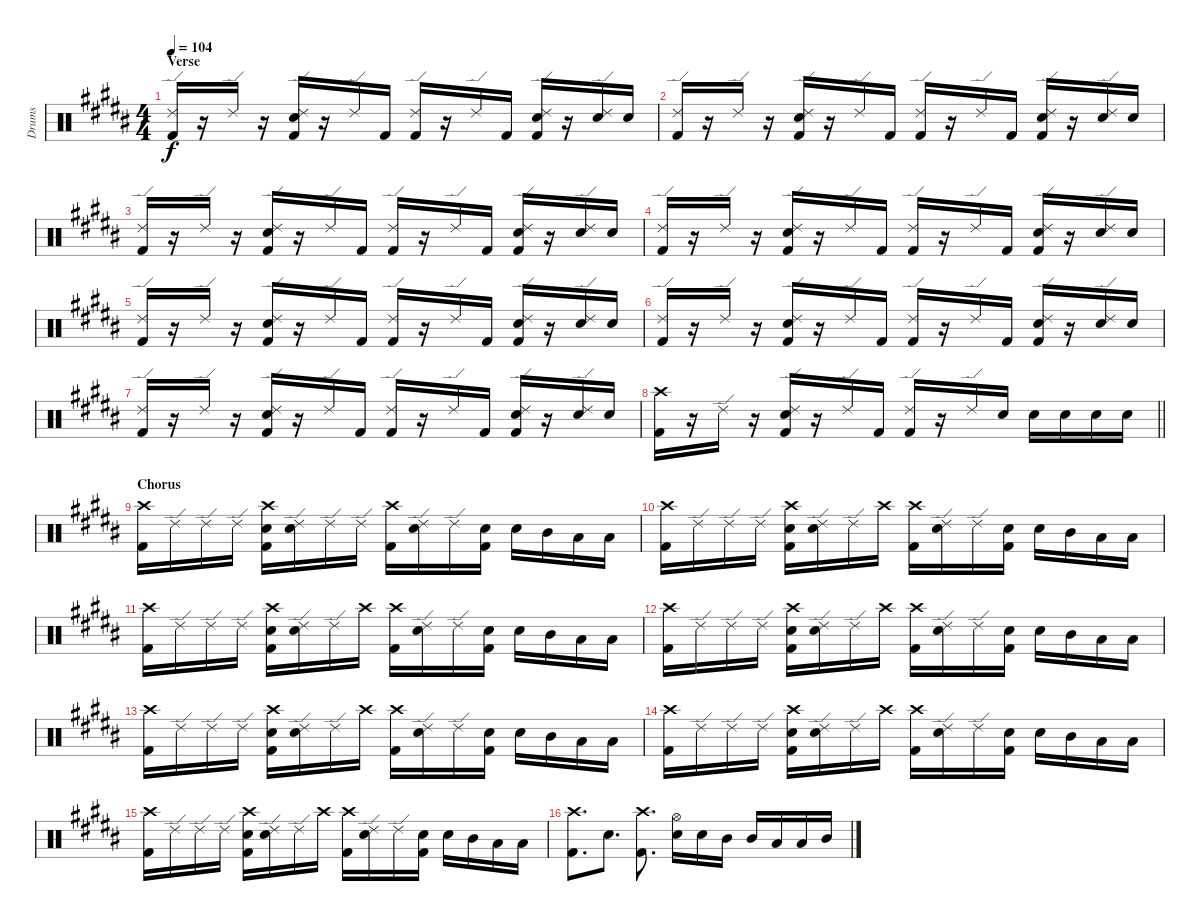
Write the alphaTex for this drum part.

\track ("Drums" "Drums") {instrument percussion}
\staff {score}
\articulation defaults
\ts (4 4)
\section ("" "Verse")
\tempo 104
\clef neutral
\ks b
("Kick (hit) 2" "Ride (edge) 2").16{dy f} r.16 "Ride (edge) 2".16 r.16 ("Electric Snare (hit)" "Kick (hit) 2" "Ride (edge) 2").16 r.16 "Ride (edge) 2".16 "Kick (hit) 2".16 ("Kick (hit) 2" "Ride (edge) 2").16 r.16 "Ride (edge) 2".16 "Kick (hit) 2".16 ("Electric Snare (hit)" "Kick (hit) 2" "Ride (edge) 2").16 r.16 ("Electric Snare (hit)" "Ride (edge) 2").16 "Electric Snare (hit)".16 |
("Kick (hit) 2" "Ride (edge) 2").16 r.16 "Ride (edge) 2".16 r.16 ("Electric Snare (hit)" "Kick (hit) 2" "Ride (edge) 2").16 r.16 "Ride (edge) 2".16 "Kick (hit) 2".16 ("Kick (hit) 2" "Ride (edge) 2").16 r.16 "Ride (edge) 2".16 "Kick (hit) 2".16 ("Electric Snare (hit)" "Kick (hit) 2" "Ride (edge) 2").16 r.16 ("Electric Snare (hit)" "Ride (edge) 2").16 "Electric Snare (hit)".16 |
("Kick (hit) 2" "Ride (edge) 2").16 r.16 "Ride (edge) 2".16 r.16 ("Electric Snare (hit)" "Kick (hit) 2" "Ride (edge) 2").16 r.16 "Ride (edge) 2".16 "Kick (hit) 2".16 ("Kick (hit) 2" "Ride (edge) 2").16 r.16 "Ride (edge) 2".16 "Kick (hit) 2".16 ("Electric Snare (hit)" "Kick (hit) 2" "Ride (edge) 2").16 r.16 ("Electric Snare (hit)" "Ride (edge) 2").16 "Electric Snare (hit)".16 |
("Kick (hit) 2" "Ride (edge) 2").16 r.16 "Ride (edge) 2".16 r.16 ("Electric Snare (hit)" "Kick (hit) 2" "Ride (edge) 2").16 r.16 "Ride (edge) 2".16 "Kick (hit) 2".16 ("Kick (hit) 2" "Ride (edge) 2").16 r.16 "Ride (edge) 2".16 "Kick (hit) 2".16 ("Electric Snare (hit)" "Kick (hit) 2" "Ride (edge) 2").16 r.16 ("Electric Snare (hit)" "Ride (edge) 2").16 "Electric Snare (hit)".16 |
("Kick (hit) 2" "Ride (edge) 2").16 r.16 "Ride (edge) 2".16 r.16 ("Electric Snare (hit)" "Kick (hit) 2" "Ride (edge) 2").16 r.16 "Ride (edge) 2".16 "Kick (hit) 2".16 ("Kick (hit) 2" "Ride (edge) 2").16 r.16 "Ride (edge) 2".16 "Kick (hit) 2".16 ("Electric Snare (hit)" "Kick (hit) 2" "Ride (edge) 2").16 r.16 ("Electric Snare (hit)" "Ride (edge) 2").16 "Electric Snare (hit)".16 |
("Kick (hit) 2" "Ride (edge) 2").16 r.16 "Ride (edge) 2".16 r.16 ("Electric Snare (hit)" "Kick (hit) 2" "Ride (edge) 2").16 r.16 "Ride (edge) 2".16 "Kick (hit) 2".16 ("Kick (hit) 2" "Ride (edge) 2").16 r.16 "Ride (edge) 2".16 "Kick (hit) 2".16 ("Electric Snare (hit)" "Kick (hit) 2" "Ride (edge) 2").16 r.16 ("Electric Snare (hit)" "Ride (edge) 2").16 "Electric Snare (hit)".16 |
("Kick (hit) 2" "Ride (edge) 2").16 r.16 "Ride (edge) 2".16 r.16 ("Electric Snare (hit)" "Kick (hit) 2" "Ride (edge) 2").16 r.16 "Ride (edge) 2".16 "Kick (hit) 2".16 ("Kick (hit) 2" "Ride (edge) 2").16 r.16 "Ride (edge) 2".16 "Kick (hit) 2".16 ("Electric Snare (hit)" "Kick (hit) 2" "Ride (edge) 2").16 r.16 ("Electric Snare (hit)" "Ride (edge) 2").16 "Electric Snare (hit)".16 |
\barLineRight lightlight
("Kick (hit) 2" "Crash high (hit)").16 r.16 "Ride (edge) 2".16 r.16 ("Electric Snare (hit)" "Kick (hit) 2" "Ride (edge) 2").16 r.16 "Ride (edge) 2".16 "Kick (hit) 2".16 ("Kick (hit) 2" "Ride (edge) 2").16 r.16 "Ride (edge) 2".16 "Electric Snare (hit)".16 "Electric Snare (hit)".16 "Electric Snare (hit)".16 "Electric Snare (hit)".16 "Electric Snare (hit)".16 |
\section ("" "Chorus")
("Kick (hit) 2" "Crash high (hit)").16 "Ride (edge) 2".16 "Ride (edge) 2".16 "Ride (edge) 2".16 ("Electric Snare (hit)" "Kick (hit) 2" "Crash high (hit)").16 ("Electric Snare (hit)" "Ride (edge) 2").16 "Ride (edge) 2".16 "Ride (edge) 2".16 ("Kick (hit) 2" "Crash high (hit)").16 ("Electric Snare (hit)" "Ride (edge) 2").16 "Ride (edge) 2".16 ("Electric Snare (hit)" "Kick (hit) 2").16 "Electric Snare (hit)".16 "Mid Tom (hit)".16 "Low Tom (hit)".16 "Low Floor Tom (hit)".16 |
("Kick (hit) 2" "Crash high (hit)").16 "Ride (edge) 2".16 "Ride (edge) 2".16 "Ride (edge) 2".16 ("Electric Snare (hit)" "Kick (hit) 2" "Crash high (hit)").16 ("Electric Snare (hit)" "Ride (edge) 2").16 "Ride (edge) 2".16 "Crash high (hit)".16 ("Kick (hit) 2" "Crash high (hit)").16 ("Electric Snare (hit)" "Ride (edge) 2").16 "Ride (edge) 2".16 ("Electric Snare (hit)" "Kick (hit) 2").16 "Electric Snare (hit)".16 "Mid Tom (hit)".16 "Low Tom (hit)".16 "Low Floor Tom (hit)".16 |
("Kick (hit) 2" "Crash high (hit)").16 "Ride (edge) 2".16 "Ride (edge) 2".16 "Ride (edge) 2".16 ("Electric Snare (hit)" "Kick (hit) 2" "Crash high (hit)").16 ("Electric Snare (hit)" "Ride (edge) 2").16 "Ride (edge) 2".16 "Crash high (hit)".16 ("Kick (hit) 2" "Crash high (hit)").16 ("Electric Snare (hit)" "Ride (edge) 2").16 "Ride (edge) 2".16 ("Electric Snare (hit)" "Kick (hit) 2").16 "Electric Snare (hit)".16 "Mid Tom (hit)".16 "Low Tom (hit)".16 "Low Floor Tom (hit)".16 |
("Kick (hit) 2" "Crash high (hit)").16 "Ride (edge) 2".16 "Ride (edge) 2".16 "Ride (edge) 2".16 ("Electric Snare (hit)" "Kick (hit) 2" "Crash high (hit)").16 ("Electric Snare (hit)" "Ride (edge) 2").16 "Ride (edge) 2".16 "Crash high (hit)".16 ("Kick (hit) 2" "Crash high (hit)").16 ("Electric Snare (hit)" "Ride (edge) 2").16 "Ride (edge) 2".16 ("Electric Snare (hit)" "Kick (hit) 2").16 "Electric Snare (hit)".16 "Mid Tom (hit)".16 "Low Tom (hit)".16 "Low Floor Tom (hit)".16 |
("Kick (hit) 2" "Crash high (hit)").16 "Ride (edge) 2".16 "Ride (edge) 2".16 "Ride (edge) 2".16 ("Electric Snare (hit)" "Kick (hit) 2" "Crash high (hit)").16 ("Electric Snare (hit)" "Ride (edge) 2").16 "Ride (edge) 2".16 "Crash high (hit)".16 ("Kick (hit) 2" "Crash high (hit)").16 ("Electric Snare (hit)" "Ride (edge) 2").16 "Ride (edge) 2".16 ("Electric Snare (hit)" "Kick (hit) 2").16 "Electric Snare (hit)".16 "Mid Tom (hit)".16 "Low Tom (hit)".16 "Low Floor Tom (hit)".16 |
("Kick (hit) 2" "Crash high (hit)").16 "Ride (edge) 2".16 "Ride (edge) 2".16 "Ride (edge) 2".16 ("Electric Snare (hit)" "Kick (hit) 2" "Crash high (hit)").16 ("Electric Snare (hit)" "Ride (edge) 2").16 "Ride (edge) 2".16 "Crash high (hit)".16 ("Kick (hit) 2" "Crash high (hit)").16 ("Electric Snare (hit)" "Ride (edge) 2").16 "Ride (edge) 2".16 ("Electric Snare (hit)" "Kick (hit) 2").16 "Electric Snare (hit)".16 "Mid Tom (hit)".16 "Low Tom (hit)".16 "Low Floor Tom (hit)".16 |
("Kick (hit) 2" "Crash high (hit)").16 "Ride (edge) 2".16 "Ride (edge) 2".16 "Ride (edge) 2".16 ("Electric Snare (hit)" "Kick (hit) 2" "Crash high (hit)").16 ("Electric Snare (hit)" "Ride (edge) 2").16 "Ride (edge) 2".16 "Crash high (hit)".16 ("Kick (hit) 2" "Crash high (hit)").16 ("Electric Snare (hit)" "Ride (edge) 2").16 "Ride (edge) 2".16 ("Electric Snare (hit)" "Kick (hit) 2").16 "Electric Snare (hit)".16 "Mid Tom (hit)".16 "Low Tom (hit)".16 "Low Floor Tom (hit)".16 |
("Kick (hit) 2" "Crash high (hit)").8{d} "Electric Snare (hit)".8{d} ("Kick (hit) 2" "Crash high (hit)").8{d} ("Electric Snare (hit)" "Hi-Hat (open)").16 "Electric Snare (hit)".16 "Mid Tom (hit)".16 "Mid Tom (hit)".16 "Low Floor Tom (hit)".16 "Low Floor Tom (hit)".16 "Mid Tom (hit)".16
